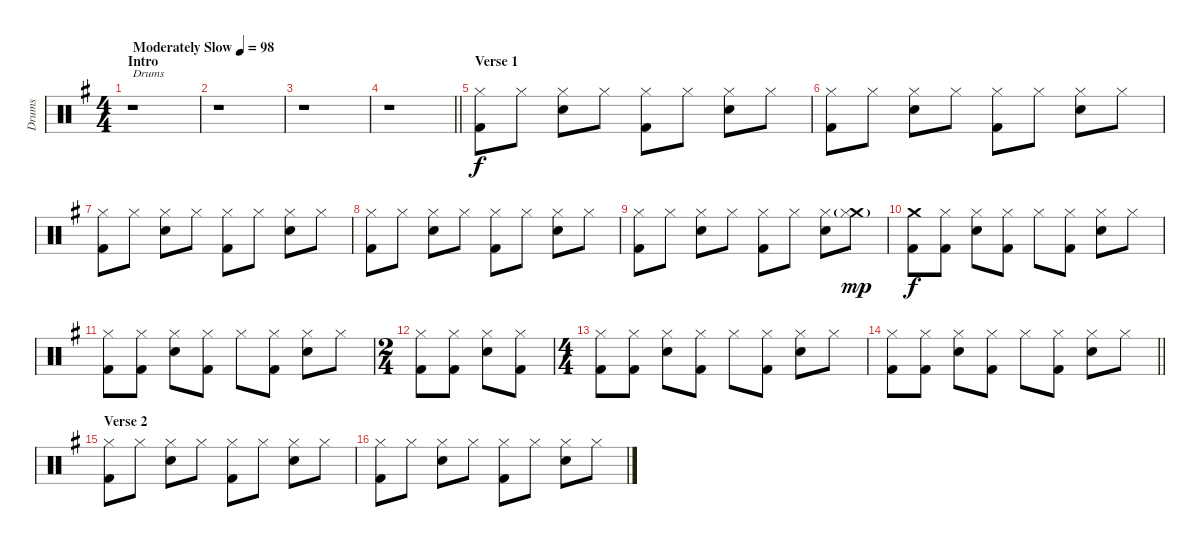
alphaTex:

\track ("Drums" "Drums") {instrument percussion}
\staff {score}
\articulation defaults
\ts (4 4)
\section ("" "Intro")
\tempo (98 "Moderately Slow")
\clef neutral
\ks g
r.1{txt "Drums" dy f} |
r.1 |
r.1 |
\barLineRight lightlight
r.1 |
\section ("" "Verse 1")
("Hi-Hat (closed)" "Kick (hit) 2").8 "Hi-Hat (closed)".8 ("Hi-Hat (closed)" "Electric Snare (hit)").8 "Hi-Hat (closed)".8 ("Hi-Hat (closed)" "Kick (hit) 2").8 "Hi-Hat (closed)".8 ("Hi-Hat (closed)" "Electric Snare (hit)").8 "Hi-Hat (closed)".8 |
("Hi-Hat (closed)" "Kick (hit) 2").8 "Hi-Hat (closed)".8 ("Hi-Hat (closed)" "Electric Snare (hit)").8 "Hi-Hat (closed)".8 ("Hi-Hat (closed)" "Kick (hit) 2").8 "Hi-Hat (closed)".8 ("Hi-Hat (closed)" "Electric Snare (hit)").8 "Hi-Hat (closed)".8 |
("Hi-Hat (closed)" "Kick (hit) 2").8 "Hi-Hat (closed)".8 ("Hi-Hat (closed)" "Electric Snare (hit)").8 "Hi-Hat (closed)".8 ("Hi-Hat (closed)" "Kick (hit) 2").8 "Hi-Hat (closed)".8 ("Hi-Hat (closed)" "Electric Snare (hit)").8 "Hi-Hat (closed)".8 |
("Hi-Hat (closed)" "Kick (hit) 2").8 "Hi-Hat (closed)".8 ("Hi-Hat (closed)" "Electric Snare (hit)").8 "Hi-Hat (closed)".8 ("Hi-Hat (closed)" "Kick (hit) 2").8 "Hi-Hat (closed)".8 ("Hi-Hat (closed)" "Electric Snare (hit)").8 "Hi-Hat (closed)".8 |
("Hi-Hat (closed)" "Kick (hit) 2").8 "Hi-Hat (closed)".8 ("Hi-Hat (closed)" "Electric Snare (hit)").8 "Hi-Hat (closed)".8 ("Hi-Hat (closed)" "Kick (hit) 2").8 "Hi-Hat (closed)".8 ("Hi-Hat (closed)" "Electric Snare (hit)").8 ("Crash medium (hit)"{g} "Hi-Hat (closed)").8{dy mp} |
("Crash medium (hit)" "Kick (hit) 2").8{dy f} ("Hi-Hat (closed)" "Kick (hit) 2").8 ("Hi-Hat (closed)" "Electric Snare (hit)").8 ("Hi-Hat (closed)" "Kick (hit) 2").8 "Hi-Hat (closed)".8 ("Hi-Hat (closed)" "Kick (hit) 2").8 ("Hi-Hat (closed)" "Electric Snare (hit)").8 "Hi-Hat (closed)".8 |
("Hi-Hat (closed)" "Kick (hit) 2").8 ("Hi-Hat (closed)" "Kick (hit) 2").8 ("Hi-Hat (closed)" "Electric Snare (hit)").8 ("Hi-Hat (closed)" "Kick (hit) 2").8 "Hi-Hat (closed)".8 ("Hi-Hat (closed)" "Kick (hit) 2").8 ("Hi-Hat (closed)" "Electric Snare (hit)").8 "Hi-Hat (closed)".8 |
\ts (2 4)
("Hi-Hat (closed)" "Kick (hit) 2").8 ("Hi-Hat (closed)" "Kick (hit) 2").8 ("Hi-Hat (closed)" "Electric Snare (hit)").8 ("Hi-Hat (closed)" "Kick (hit) 2").8 |
\ts (4 4)
("Hi-Hat (closed)" "Kick (hit) 2").8 ("Hi-Hat (closed)" "Kick (hit) 2").8 ("Hi-Hat (closed)" "Electric Snare (hit)").8 ("Hi-Hat (closed)" "Kick (hit) 2").8 "Hi-Hat (closed)".8 ("Hi-Hat (closed)" "Kick (hit) 2").8 ("Hi-Hat (closed)" "Electric Snare (hit)").8 "Hi-Hat (closed)".8 |
\barLineRight lightlight
("Hi-Hat (closed)" "Kick (hit) 2").8 ("Hi-Hat (closed)" "Kick (hit) 2").8 ("Hi-Hat (closed)" "Electric Snare (hit)").8 ("Hi-Hat (closed)" "Kick (hit) 2").8 "Hi-Hat (closed)".8 ("Hi-Hat (closed)" "Kick (hit) 2").8 ("Hi-Hat (closed)" "Electric Snare (hit)").8 "Hi-Hat (closed)".8 |
\section ("" "Verse 2")
("Hi-Hat (closed)" "Kick (hit) 2").8 "Hi-Hat (closed)".8 ("Hi-Hat (closed)" "Electric Snare (hit)").8 "Hi-Hat (closed)".8 ("Hi-Hat (closed)" "Kick (hit) 2").8 "Hi-Hat (closed)".8 ("Hi-Hat (closed)" "Electric Snare (hit)").8 "Hi-Hat (closed)".8 |
("Hi-Hat (closed)" "Kick (hit) 2").8 "Hi-Hat (closed)".8 ("Hi-Hat (closed)" "Electric Snare (hit)").8 "Hi-Hat (closed)".8 ("Hi-Hat (closed)" "Kick (hit) 2").8 "Hi-Hat (closed)".8 ("Hi-Hat (closed)" "Electric Snare (hit)").8 "Hi-Hat (closed)".8
